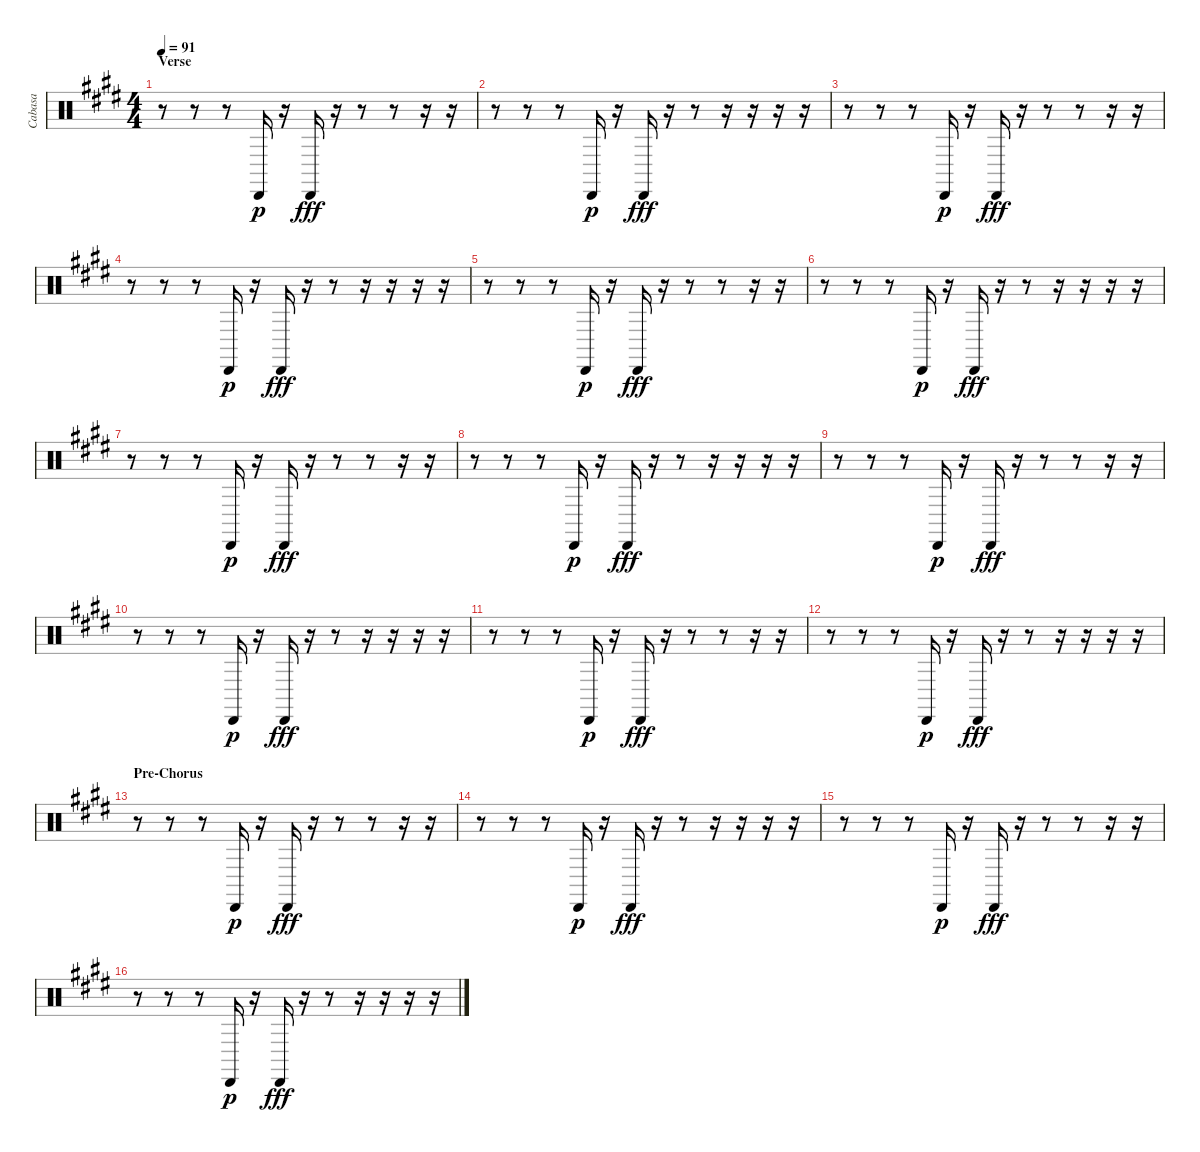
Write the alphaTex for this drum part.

\track ("Cabasa" "Cabasa") {instrument percussion}
\staff {score}
\articulation defaults
\ts (4 4)
\section ("" "Verse")
\tempo 91
\clef neutral
\ks e
r.8{dy fff} r.8 r.8 "Cabasa (hit)".16{dy p} r.16 "Cabasa (hit)".16{dy fff} r.16 r.8 r.8 r.16 r.16 |
r.8 r.8 r.8 "Cabasa (hit)".16{dy p} r.16 "Cabasa (hit)".16{dy fff} r.16 r.8 r.16 r.16 r.16 r.16 |
r.8 r.8 r.8 "Cabasa (hit)".16{dy p} r.16 "Cabasa (hit)".16{dy fff} r.16 r.8 r.8 r.16 r.16 |
r.8 r.8 r.8 "Cabasa (hit)".16{dy p} r.16 "Cabasa (hit)".16{dy fff} r.16 r.8 r.16 r.16 r.16 r.16 |
r.8 r.8 r.8 "Cabasa (hit)".16{dy p} r.16 "Cabasa (hit)".16{dy fff} r.16 r.8 r.8 r.16 r.16 |
r.8 r.8 r.8 "Cabasa (hit)".16{dy p} r.16 "Cabasa (hit)".16{dy fff} r.16 r.8 r.16 r.16 r.16 r.16 |
r.8 r.8 r.8 "Cabasa (hit)".16{dy p} r.16 "Cabasa (hit)".16{dy fff} r.16 r.8 r.8 r.16 r.16 |
r.8 r.8 r.8 "Cabasa (hit)".16{dy p} r.16 "Cabasa (hit)".16{dy fff} r.16 r.8 r.16 r.16 r.16 r.16 |
r.8 r.8 r.8 "Cabasa (hit)".16{dy p} r.16 "Cabasa (hit)".16{dy fff} r.16 r.8 r.8 r.16 r.16 |
r.8 r.8 r.8 "Cabasa (hit)".16{dy p} r.16 "Cabasa (hit)".16{dy fff} r.16 r.8 r.16 r.16 r.16 r.16 |
r.8 r.8 r.8 "Cabasa (hit)".16{dy p} r.16 "Cabasa (hit)".16{dy fff} r.16 r.8 r.8 r.16 r.16 |
r.8 r.8 r.8 "Cabasa (hit)".16{dy p} r.16 "Cabasa (hit)".16{dy fff} r.16 r.8 r.16 r.16 r.16 r.16 |
\section ("" "Pre-Chorus")
r.8 r.8 r.8 "Cabasa (hit)".16{dy p} r.16 "Cabasa (hit)".16{dy fff} r.16 r.8 r.8 r.16 r.16 |
r.8 r.8 r.8 "Cabasa (hit)".16{dy p} r.16 "Cabasa (hit)".16{dy fff} r.16 r.8 r.16 r.16 r.16 r.16 |
r.8 r.8 r.8 "Cabasa (hit)".16{dy p} r.16 "Cabasa (hit)".16{dy fff} r.16 r.8 r.8 r.16 r.16 |
r.8 r.8 r.8 "Cabasa (hit)".16{dy p} r.16 "Cabasa (hit)".16{dy fff} r.16 r.8 r.16 r.16 r.16 r.16
